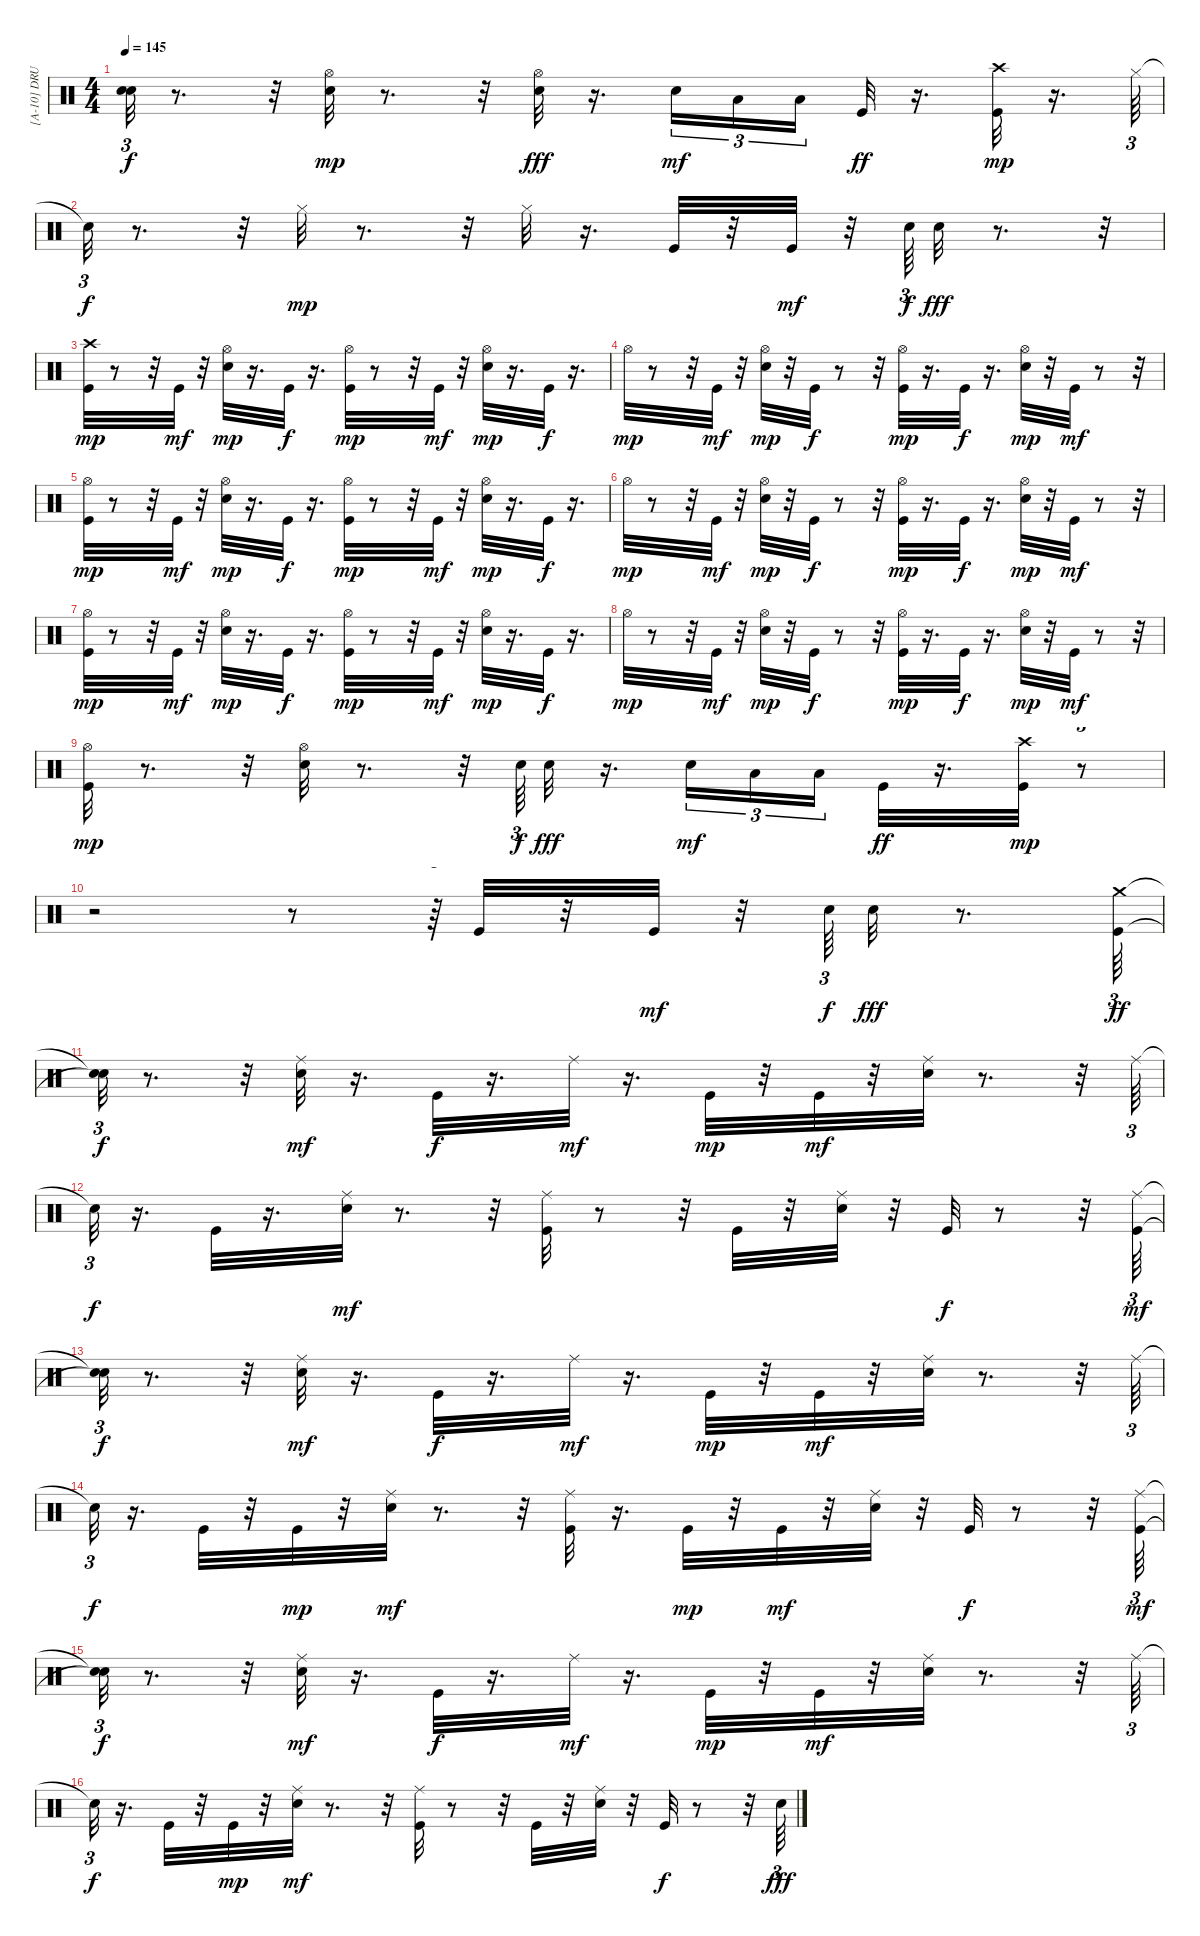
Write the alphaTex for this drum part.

\track ("[A-10] DRUMS" "[A-10] DRU") {instrument percussion}
\staff {score}
\articulation defaults
\ts (4 4)
\tempo 145
\clef neutral
\ks c
("Snare (hit)"{t} "Snare (hit)"{t}).32{tu (3 2) dy f} r.8{d} r.32 ("Snare (hit) 2" "Hi-Hat (open)").32{dy mp} r.8{d} r.32 ("Hi-Hat (open)" "Snare (hit) 2").32{dy fff} r.16{d} "Snare (hit) 2".16{tu (3 2) dy mf} "Low Tom (hit)".16{tu (3 2)} "Low Floor Tom (hit)".16{tu (3 2) beam splitsecondary} "Kick (hit)".32{dy ff} r.16{d} ("Kick (hit)" "Crash high (hit)").32{dy mp} r.16{d} "Hi-Hat (closed)".64{tu (3 2)} |
"Snare (hit)"{t}.32{tu (3 2) dy f} r.8{d} r.32 "Hi-Hat (closed)".32{dy mp} r.8{d} r.32 "Hi-Hat (closed)".32 r.16{d} "Kick (hit)".32 r.32 "Kick (hit)".32{dy mf} r.32 "Snare (hit) 2".64{tu (3 2) dy f} "Snare (hit) 2".32{dy fff} r.8{d} r.32 |
("Kick (hit)" "Crash high (hit)").32{dy mp} r.8 r.32 "Kick (hit)".32{dy mf} r.32 ("Snare (hit) 2" "Hi-Hat (open)").32{dy mp} r.16{d} "Kick (hit)".32{dy f} r.16{d} ("Kick (hit)" "Hi-Hat (open)").32{dy mp} r.8 r.32 "Kick (hit)".32{dy mf} r.32 ("Snare (hit) 2" "Hi-Hat (open)").32{dy mp} r.16{d} "Kick (hit)".32{dy f} r.16{d} |
"Hi-Hat (open)".32{dy mp} r.8 r.32 "Kick (hit)".32{dy mf} r.32 ("Snare (hit) 2" "Hi-Hat (open)").32{dy mp} r.32 "Kick (hit)".32{dy f} r.8 r.32 ("Kick (hit)" "Hi-Hat (open)").32{dy mp} r.16{d} "Kick (hit)".32{dy f} r.16{d} ("Snare (hit) 2" "Hi-Hat (open)").32{dy mp} r.32 "Kick (hit)".32{dy mf} r.8 r.32 |
("Kick (hit)" "Hi-Hat (open)").32{dy mp} r.8 r.32 "Kick (hit)".32{dy mf} r.32 ("Snare (hit) 2" "Hi-Hat (open)").32{dy mp} r.16{d} "Kick (hit)".32{dy f} r.16{d} ("Kick (hit)" "Hi-Hat (open)").32{dy mp} r.8 r.32 "Kick (hit)".32{dy mf} r.32 ("Snare (hit) 2" "Hi-Hat (open)").32{dy mp} r.16{d} "Kick (hit)".32{dy f} r.16{d} |
"Hi-Hat (open)".32{dy mp} r.8 r.32 "Kick (hit)".32{dy mf} r.32 ("Snare (hit) 2" "Hi-Hat (open)").32{dy mp} r.32 "Kick (hit)".32{dy f} r.8 r.32 ("Kick (hit)" "Hi-Hat (open)").32{dy mp} r.16{d} "Kick (hit)".32{dy f} r.16{d} ("Snare (hit) 2" "Hi-Hat (open)").32{dy mp} r.32 "Kick (hit)".32{dy mf} r.8 r.32 |
("Kick (hit)" "Hi-Hat (open)").32{dy mp} r.8 r.32 "Kick (hit)".32{dy mf} r.32 ("Snare (hit) 2" "Hi-Hat (open)").32{dy mp} r.16{d} "Kick (hit)".32{dy f} r.16{d} ("Kick (hit)" "Hi-Hat (open)").32{dy mp} r.8 r.32 "Kick (hit)".32{dy mf} r.32 ("Snare (hit) 2" "Hi-Hat (open)").32{dy mp} r.16{d} "Kick (hit)".32{dy f} r.16{d} |
"Hi-Hat (open)".32{dy mp} r.8 r.32 "Kick (hit)".32{dy mf} r.32 ("Snare (hit) 2" "Hi-Hat (open)").32{dy mp} r.32 "Kick (hit)".32{dy f} r.8 r.32 ("Kick (hit)" "Hi-Hat (open)").32{dy mp} r.16{d} "Kick (hit)".32{dy f} r.16{d} ("Snare (hit) 2" "Hi-Hat (open)").32{dy mp} r.32 "Kick (hit)".32{dy mf} r.8 r.32 |
("Kick (hit)" "Hi-Hat (open)").32{dy mp} r.8{d} r.32 ("Snare (hit) 2" "Hi-Hat (open)").32 r.8{d} r.32 "Snare (hit) 2".64{tu (3 2) dy f} "Snare (hit) 2".32{dy fff} r.16{d} "Snare (hit) 2".16{tu (3 2) dy mf} "Low Tom (hit)".16{tu (3 2)} "Low Floor Tom (hit)".16{tu (3 2)} "Kick (hit)".32{dy ff} r.16{d} ("Kick (hit)" "Crash high (hit)").32{dy mp} r.8{tu (3 2)} |
r.2 r.8 r.64{tu (3 2)} "Kick (hit)".32 r.32 "Kick (hit)".32{dy mf} r.32 "Snare (hit) 2".64{tu (3 2) dy f} "Snare (hit) 2".32{dy fff} r.8{d} ("Crash medium (hit)" "Kick (hit)").64{tu (3 2) dy ff} |
("Snare (hit)"{t} "Snare (hit)"{t}).32{tu (3 2) dy f} r.8{d} r.32 ("Snare (hit) 2" "Ride (middle)").32{dy mf} r.16{d} "Kick (hit)".32{dy f} r.16{d} "Ride (middle)".32{dy mf} r.16{d} "Kick (hit)".32{dy mp} r.32 "Kick (hit)".32{dy mf} r.32 ("Snare (hit) 2" "Ride (middle)").32 r.8{d} r.32 "Ride (middle)".64{tu (3 2)} |
"Snare (hit)"{t}.32{tu (3 2) dy f} r.16{d} "Kick (hit)".32 r.16{d} ("Snare (hit) 2" "Ride (middle)").32{dy mf} r.8{d} r.32 ("Kick (hit)" "Ride (middle)").32 r.8 r.32 "Kick (hit)".32 r.32 ("Snare (hit) 2" "Ride (middle)").32 r.32 "Kick (hit)".32{dy f} r.8 r.32 ("Kick (hit)" "Ride (middle)").64{tu (3 2) dy mf} |
("Snare (hit)"{t} "Snare (hit)"{t}).32{tu (3 2) dy f} r.8{d} r.32 ("Snare (hit) 2" "Ride (middle)").32{dy mf} r.16{d} "Kick (hit)".32{dy f} r.16{d} "Ride (middle)".32{dy mf} r.16{d} "Kick (hit)".32{dy mp} r.32 "Kick (hit)".32{dy mf} r.32 ("Snare (hit) 2" "Ride (middle)").32 r.8{d} r.32 "Ride (middle)".64{tu (3 2)} |
"Snare (hit)"{t}.32{tu (3 2) dy f} r.16{d} "Kick (hit)".32 r.32 "Kick (hit)".32{dy mp} r.32 ("Snare (hit) 2" "Ride (middle)").32{dy mf} r.8{d} r.32 ("Kick (hit)" "Ride (middle)").32 r.16{d} "Kick (hit)".32{dy mp} r.32 "Kick (hit)".32{dy mf} r.32 ("Snare (hit) 2" "Ride (middle)").32 r.32 "Kick (hit)".32{dy f} r.8 r.32 ("Kick (hit)" "Ride (middle)").64{tu (3 2) dy mf} |
("Snare (hit)"{t} "Snare (hit)"{t}).32{tu (3 2) dy f} r.8{d} r.32 ("Snare (hit) 2" "Ride (middle)").32{dy mf} r.16{d} "Kick (hit)".32{dy f} r.16{d} "Ride (middle)".32{dy mf} r.16{d} "Kick (hit)".32{dy mp} r.32 "Kick (hit)".32{dy mf} r.32 ("Snare (hit) 2" "Ride (middle)").32 r.8{d} r.32 "Ride (middle)".64{tu (3 2)} |
"Snare (hit)"{t}.32{tu (3 2) dy f} r.16{d} "Kick (hit)".32 r.32 "Kick (hit)".32{dy mp} r.32 ("Snare (hit) 2" "Ride (middle)").32{dy mf} r.8{d} r.32 ("Kick (hit)" "Ride (middle)").32 r.8 r.32 "Kick (hit)".32 r.32 ("Snare (hit) 2" "Ride (middle)").32 r.32 "Kick (hit)".32{dy f} r.8 r.32 "Snare (hit) 2".64{tu (3 2) dy fff}
